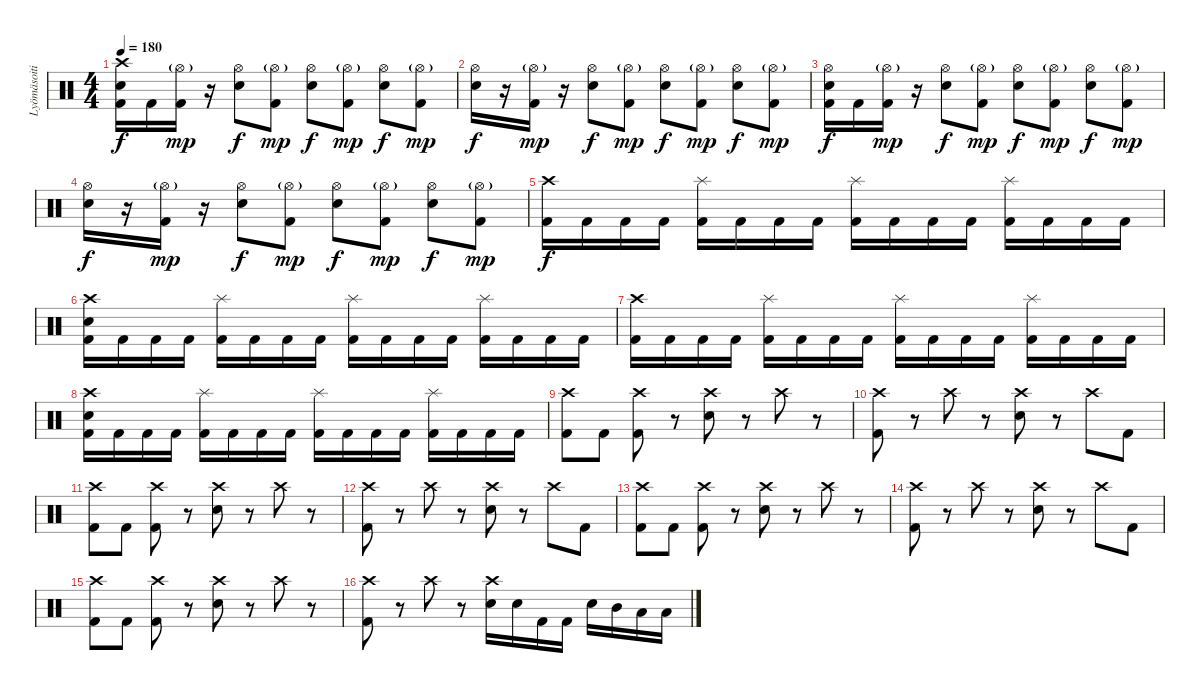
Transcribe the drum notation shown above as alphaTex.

\track ("Lyömäsoitin" "Lyömäsoiti") {instrument percussion}
\staff {score}
\articulation defaults
\ts (4 4)
\tempo 180
\clef neutral
\ks c
("Kick (hit) 2" "Electric Snare (hit)" "Crash high (hit)").16{dy f} "Kick (hit) 2".16 ("Kick (hit) 2" "Hi-Hat (open)"{g}).16{dy mp} r.16 ("Electric Snare (hit)" "Hi-Hat (open)").8{dy f} ("Kick (hit) 2" "Hi-Hat (open)"{g}).8{dy mp} ("Electric Snare (hit)" "Hi-Hat (open)").8{dy f} ("Kick (hit) 2" "Hi-Hat (open)"{g}).8{dy mp} ("Electric Snare (hit)" "Hi-Hat (open)").8{dy f} ("Kick (hit) 2" "Hi-Hat (open)"{g}).8{dy mp} |
("Electric Snare (hit)" "Hi-Hat (open)").16{dy f} r.16 ("Kick (hit) 2" "Hi-Hat (open)"{g}).16{dy mp} r.16 ("Electric Snare (hit)" "Hi-Hat (open)").8{dy f} ("Kick (hit) 2" "Hi-Hat (open)"{g}).8{dy mp} ("Electric Snare (hit)" "Hi-Hat (open)").8{dy f} ("Kick (hit) 2" "Hi-Hat (open)"{g}).8{dy mp} ("Electric Snare (hit)" "Hi-Hat (open)").8{dy f} ("Kick (hit) 2" "Hi-Hat (open)"{g}).8{dy mp} |
("Kick (hit) 2" "Electric Snare (hit)" "Hi-Hat (open)").16{dy f} "Kick (hit) 2".16 ("Kick (hit) 2" "Hi-Hat (open)"{g}).16{dy mp} r.16 ("Electric Snare (hit)" "Hi-Hat (open)").8{dy f} ("Kick (hit) 2" "Hi-Hat (open)"{g}).8{dy mp} ("Electric Snare (hit)" "Hi-Hat (open)").8{dy f} ("Kick (hit) 2" "Hi-Hat (open)"{g}).8{dy mp} ("Electric Snare (hit)" "Hi-Hat (open)").8{dy f} ("Kick (hit) 2" "Hi-Hat (open)"{g}).8{dy mp} |
("Electric Snare (hit)" "Hi-Hat (open)").16{dy f} r.16 ("Kick (hit) 2" "Hi-Hat (open)"{g}).16{dy mp} r.16 ("Electric Snare (hit)" "Hi-Hat (open)").8{dy f} ("Kick (hit) 2" "Hi-Hat (open)"{g}).8{dy mp} ("Electric Snare (hit)" "Hi-Hat (open)").8{dy f} ("Kick (hit) 2" "Hi-Hat (open)"{g}).8{dy mp} ("Electric Snare (hit)" "Hi-Hat (open)").8{dy f} ("Kick (hit) 2" "Hi-Hat (open)"{g}).8{dy mp} |
("Kick (hit) 2" "Crash high (hit)").16{dy f} "Kick (hit) 2".16 "Kick (hit) 2".16 "Kick (hit) 2".16 ("Kick (hit) 2" "Splash (hit)").16 "Kick (hit) 2".16 "Kick (hit) 2".16 "Kick (hit) 2".16 ("Kick (hit) 2" "Splash (hit)").16 "Kick (hit) 2".16 "Kick (hit) 2".16 "Kick (hit) 2".16 ("Kick (hit) 2" "Splash (hit)").16 "Kick (hit) 2".16 "Kick (hit) 2".16 "Kick (hit) 2".16 |
("Kick (hit) 2" "Electric Snare (hit)" "Crash high (hit)").16 "Kick (hit) 2".16 "Kick (hit) 2".16 "Kick (hit) 2".16 ("Kick (hit) 2" "Splash (hit)").16 "Kick (hit) 2".16 "Kick (hit) 2".16 "Kick (hit) 2".16 ("Kick (hit) 2" "Splash (hit)").16 "Kick (hit) 2".16 "Kick (hit) 2".16 "Kick (hit) 2".16 ("Kick (hit) 2" "Splash (hit)").16 "Kick (hit) 2".16 "Kick (hit) 2".16 "Kick (hit) 2".16 |
("Kick (hit) 2" "Crash high (hit)").16 "Kick (hit) 2".16 "Kick (hit) 2".16 "Kick (hit) 2".16 ("Kick (hit) 2" "Splash (hit)").16 "Kick (hit) 2".16 "Kick (hit) 2".16 "Kick (hit) 2".16 ("Kick (hit) 2" "Splash (hit)").16 "Kick (hit) 2".16 "Kick (hit) 2".16 "Kick (hit) 2".16 ("Kick (hit) 2" "Splash (hit)").16 "Kick (hit) 2".16 "Kick (hit) 2".16 "Kick (hit) 2".16 |
("Kick (hit) 2" "Electric Snare (hit)" "Crash high (hit)").16 "Kick (hit) 2".16 "Kick (hit) 2".16 "Kick (hit) 2".16 ("Kick (hit) 2" "Splash (hit)").16 "Kick (hit) 2".16 "Kick (hit) 2".16 "Kick (hit) 2".16 ("Kick (hit) 2" "Splash (hit)").16 "Kick (hit) 2".16 "Kick (hit) 2".16 "Kick (hit) 2".16 ("Kick (hit) 2" "Splash (hit)").16 "Kick (hit) 2".16 "Kick (hit) 2".16 "Kick (hit) 2".16 |
("Kick (hit) 2" "Crash high (hit)").8 "Kick (hit) 2".8 ("Kick (hit) 2" "Crash high (hit)").8 r.8 ("Electric Snare (hit)" "Crash high (hit)").8 r.8 "Crash high (hit)".8 r.8 |
("Kick (hit) 2" "Crash high (hit)").8 r.8 "Crash high (hit)".8 r.8 ("Electric Snare (hit)" "Crash high (hit)").8 r.8 "Crash high (hit)".8 "Kick (hit) 2".8 |
("Kick (hit) 2" "Crash high (hit)").8 "Kick (hit) 2".8 ("Kick (hit) 2" "Crash high (hit)").8 r.8 ("Electric Snare (hit)" "Crash high (hit)").8 r.8 "Crash high (hit)".8 r.8 |
("Kick (hit) 2" "Crash high (hit)").8 r.8 "Crash high (hit)".8 r.8 ("Electric Snare (hit)" "Crash high (hit)").8 r.8 "Crash high (hit)".8 "Kick (hit) 2".8 |
("Kick (hit) 2" "Crash high (hit)").8 "Kick (hit) 2".8 ("Kick (hit) 2" "Crash high (hit)").8 r.8 ("Electric Snare (hit)" "Crash high (hit)").8 r.8 "Crash high (hit)".8 r.8 |
("Kick (hit) 2" "Crash high (hit)").8 r.8 "Crash high (hit)".8 r.8 ("Electric Snare (hit)" "Crash high (hit)").8 r.8 "Crash high (hit)".8 "Kick (hit) 2".8 |
("Kick (hit) 2" "Crash high (hit)").8 "Kick (hit) 2".8 ("Kick (hit) 2" "Crash high (hit)").8 r.8 ("Electric Snare (hit)" "Crash high (hit)").8 r.8 "Crash high (hit)".8 r.8 |
("Kick (hit) 2" "Crash high (hit)").8 r.8 "Crash high (hit)".8 r.8 ("Electric Snare (hit)" "Crash high (hit)").16 "Electric Snare (hit)".16 "Kick (hit) 2".16 "Kick (hit) 2".16 "Electric Snare (hit)".16 "Mid Tom (hit)".16 "Low Tom (hit)".16 "Low Tom (hit)".16
